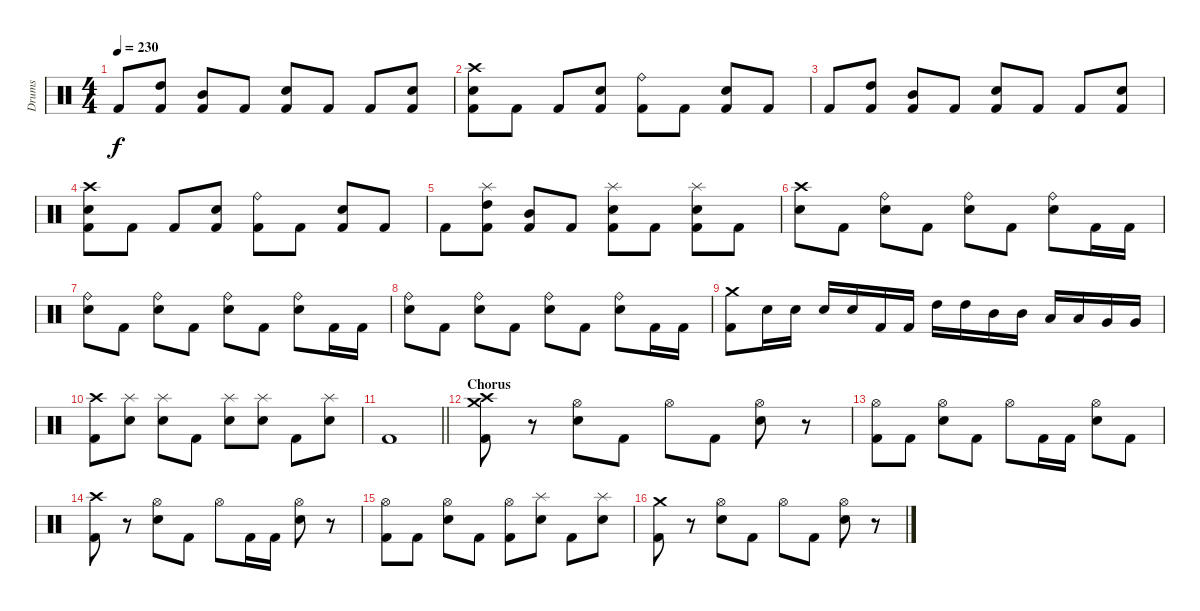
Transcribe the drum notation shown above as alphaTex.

\track ("Drums" "Drums") {instrument percussion}
\staff {score}
\articulation defaults
\ts (4 4)
\tempo 230
\clef neutral
\ks c "Kick (hit) 2".8{dy f}
("High Tom (hit)" "Kick (hit) 2").8 ("Mid Tom (hit)" "Kick (hit) 2").8 "Kick (hit) 2".8 ("Electric Snare (hit)" "Kick (hit) 2").8 "Kick (hit) 2".8 "Kick (hit) 2".8 ("Electric Snare (hit)" "Kick (hit) 2").8 |
("Crash high (hit)" "Electric Snare (hit)" "Kick (hit) 2").8 "Kick (hit) 2".8 "Kick (hit) 2".8 ("Electric Snare (hit)" "Kick (hit) 2").8 ("Ride (bell)" "Kick (hit) 2").8 "Kick (hit) 2".8 ("Electric Snare (hit)" "Kick (hit) 2").8 "Kick (hit) 2".8 |
"Kick (hit) 2".8 ("High Tom (hit)" "Kick (hit) 2").8 ("Mid Tom (hit)" "Kick (hit) 2").8 "Kick (hit) 2".8 ("Electric Snare (hit)" "Kick (hit) 2").8 "Kick (hit) 2".8 "Kick (hit) 2".8 ("Electric Snare (hit)" "Kick (hit) 2").8 |
("Crash high (hit)" "Electric Snare (hit)" "Kick (hit) 2").8 "Kick (hit) 2".8 "Kick (hit) 2".8 ("Electric Snare (hit)" "Kick (hit) 2").8 ("Ride (bell)" "Kick (hit) 2").8 "Kick (hit) 2".8 ("Electric Snare (hit)" "Kick (hit) 2").8 "Kick (hit) 2".8 |
"Kick (hit) 2".8 ("Splash (hit)" "High Tom (hit)" "Kick (hit) 2").8 ("Mid Tom (hit)" "Kick (hit) 2").8 "Kick (hit) 2".8 ("Splash (hit)" "Electric Snare (hit)" "Kick (hit) 2").8 "Kick (hit) 2".8 ("Splash (hit)" "Electric Snare (hit)" "Kick (hit) 2").8 "Kick (hit) 2".8 |
("Crash high (hit)" "Electric Snare (hit)").8 "Kick (hit) 2".8 ("Ride (bell)" "Electric Snare (hit)").8 "Kick (hit) 2".8 ("Ride (bell)" "Electric Snare (hit)").8 "Kick (hit) 2".8 ("Ride (bell)" "Electric Snare (hit)").8 "Kick (hit) 2".16 "Kick (hit) 2".16 |
("Ride (bell)" "Electric Snare (hit)").8 "Kick (hit) 2".8 ("Ride (bell)" "Electric Snare (hit)").8 "Kick (hit) 2".8 ("Ride (bell)" "Electric Snare (hit)").8 "Kick (hit) 2".8 ("Ride (bell)" "Electric Snare (hit)").8 "Kick (hit) 2".16 "Kick (hit) 2".16 |
("Ride (bell)" "Electric Snare (hit)").8 "Kick (hit) 2".8 ("Ride (bell)" "Electric Snare (hit)").8 "Kick (hit) 2".8 ("Ride (bell)" "Electric Snare (hit)").8 "Kick (hit) 2".8 ("Ride (bell)" "Electric Snare (hit)").8 "Kick (hit) 2".16 "Kick (hit) 2".16 |
("Crash medium (hit)" "Kick (hit) 2").8 "Electric Snare (hit)".16 "Electric Snare (hit)".16 "Electric Snare (hit)".16 "Electric Snare (hit)".16 "Kick (hit) 2".16 "Kick (hit) 2".16 "High Tom (hit)".16 "High Tom (hit)".16 "Mid Tom (hit)".16 "Mid Tom (hit)".16 "Low Tom (hit)".16 "Low Tom (hit)".16 "Very Low Tom (hit)".16 "Very Low Tom (hit)".16 |
("Crash high (hit)" "Kick (hit) 2").8 ("Splash (hit)" "Electric Snare (hit)").8 ("Splash (hit)" "Electric Snare (hit)").8 "Kick (hit) 2".8 ("Splash (hit)" "Electric Snare (hit)").8 ("Splash (hit)" "Electric Snare (hit)").8 "Kick (hit) 2".8 ("Splash (hit)" "Electric Snare (hit)").8 |
\barLineRight lightlight "Kick (hit) 2".1
|
\section ("" "Chorus")
("Crash high (hit)" "Crash medium (hit)" "Kick (hit) 2").8 r.8 ("Hi-Hat (open)" "Electric Snare (hit)").8 "Kick (hit) 2".8 "Hi-Hat (open)".8 "Kick (hit) 2".8 ("Hi-Hat (open)" "Electric Snare (hit)").8 r.8 |
("Hi-Hat (open)" "Kick (hit) 2").8 "Kick (hit) 2".8 ("Hi-Hat (open)" "Electric Snare (hit)").8 "Kick (hit) 2".8 "Hi-Hat (open)".8 "Kick (hit) 2".16 "Kick (hit) 2".16 ("Hi-Hat (open)" "Electric Snare (hit)").8 "Kick (hit) 2".8 |
("Crash high (hit)" "Kick (hit) 2").8 r.8 ("Hi-Hat (open)" "Electric Snare (hit)").8 "Kick (hit) 2".8 "Hi-Hat (open)".8 "Kick (hit) 2".16 "Kick (hit) 2".16 ("Hi-Hat (open)" "Electric Snare (hit)").8 r.8 |
("Hi-Hat (open)" "Kick (hit) 2").8 "Kick (hit) 2".8 ("Hi-Hat (open)" "Electric Snare (hit)").8 "Kick (hit) 2".8 ("Hi-Hat (open)" "Kick (hit) 2").8 ("Splash (hit)" "Electric Snare (hit)").8 "Kick (hit) 2".8 ("Splash (hit)" "Electric Snare (hit)").8 |
("Crash medium (hit)" "Kick (hit) 2").8 r.8 ("Hi-Hat (open)" "Electric Snare (hit)").8 "Kick (hit) 2".8 "Hi-Hat (open)".8 "Kick (hit) 2".8 ("Hi-Hat (open)" "Electric Snare (hit)").8 r.8
